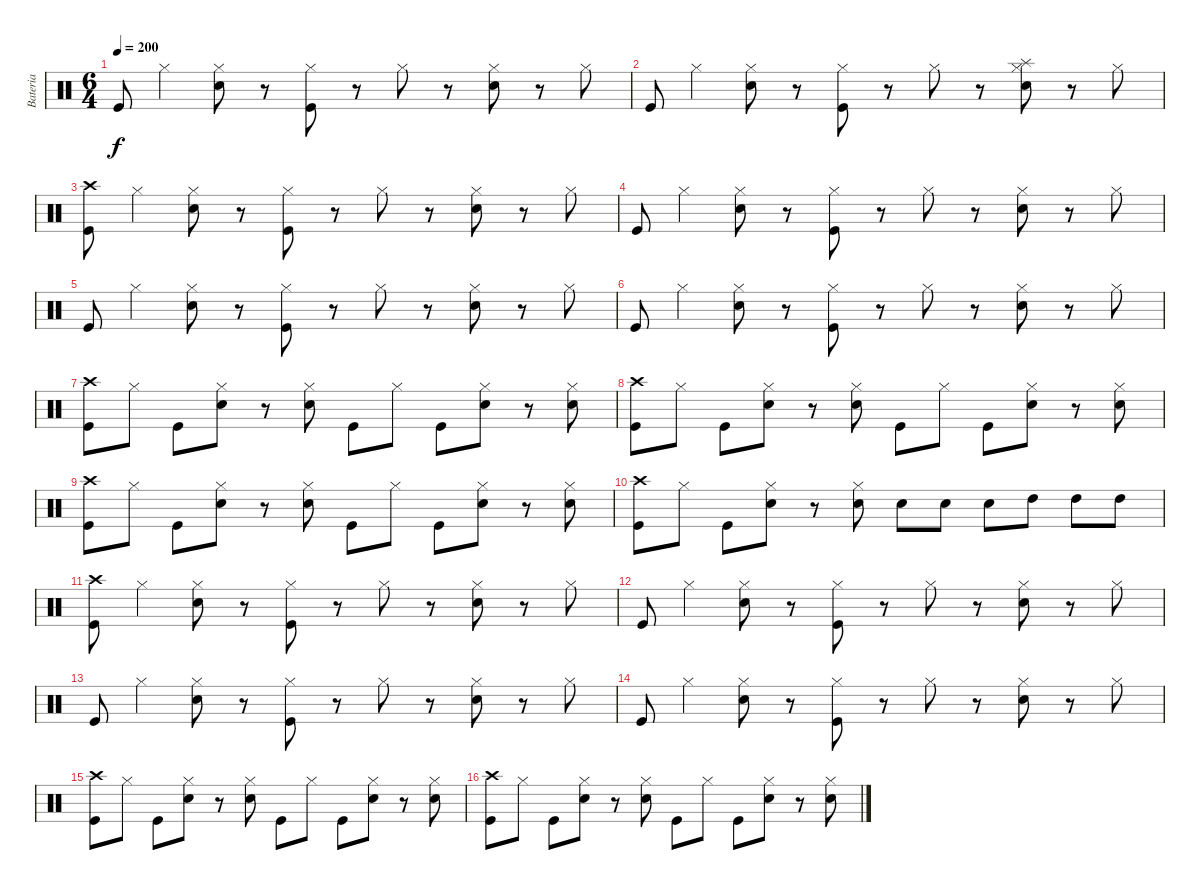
\track ("Bateria" "Bateria") {instrument percussion}
\staff {score}
\articulation defaults
\ts (6 4)
\tempo 200
\clef neutral
\ks c "Kick (hit)".8{dy f} "Hi-Hat (closed)".4
("Hi-Hat (closed)" "Electric Snare (hit)").8 r.8 ("Hi-Hat (closed)" "Kick (hit)").8 r.8 "Hi-Hat (closed)".8 r.8 ("Hi-Hat (closed)" "Electric Snare (hit)").8 r.8 "Hi-Hat (closed)".8 |
"Kick (hit)".8 "Hi-Hat (closed)".4 ("Hi-Hat (closed)" "Electric Snare (hit)").8 r.8 ("Hi-Hat (closed)" "Kick (hit)").8 r.8 "Hi-Hat (closed)".8 r.8 ("Splash (hit)" "Hi-Hat (closed)" "Electric Snare (hit)").8 r.8 "Hi-Hat (closed)".8 |
("Crash high (hit)" "Kick (hit)").8 "Hi-Hat (closed)".4 ("Hi-Hat (closed)" "Electric Snare (hit)").8 r.8 ("Hi-Hat (closed)" "Kick (hit)").8 r.8 "Hi-Hat (closed)".8 r.8 ("Hi-Hat (closed)" "Electric Snare (hit)").8 r.8 "Hi-Hat (closed)".8 |
"Kick (hit)".8 "Hi-Hat (closed)".4 ("Hi-Hat (closed)" "Electric Snare (hit)").8 r.8 ("Hi-Hat (closed)" "Kick (hit)").8 r.8 "Hi-Hat (closed)".8 r.8 ("Hi-Hat (closed)" "Electric Snare (hit)").8 r.8 "Hi-Hat (closed)".8 |
"Kick (hit)".8 "Hi-Hat (closed)".4 ("Hi-Hat (closed)" "Electric Snare (hit)").8 r.8 ("Hi-Hat (closed)" "Kick (hit)").8 r.8 "Hi-Hat (closed)".8 r.8 ("Hi-Hat (closed)" "Electric Snare (hit)").8 r.8 "Hi-Hat (closed)".8 |
"Kick (hit)".8 "Hi-Hat (closed)".4 ("Hi-Hat (closed)" "Electric Snare (hit)").8 r.8 ("Hi-Hat (closed)" "Kick (hit)").8 r.8 "Hi-Hat (closed)".8 r.8 ("Hi-Hat (closed)" "Electric Snare (hit)").8 r.8 "Hi-Hat (closed)".8 |
("Crash high (hit)" "Kick (hit)").8 "Hi-Hat (closed)".8 "Kick (hit)".8 ("Electric Snare (hit)" "Hi-Hat (closed)").8 r.8 ("Electric Snare (hit)" "Hi-Hat (closed)").8 "Kick (hit)".8 "Hi-Hat (closed)".8 "Kick (hit)".8 ("Electric Snare (hit)" "Hi-Hat (closed)").8 r.8 ("Electric Snare (hit)" "Hi-Hat (closed)").8 |
("Crash high (hit)" "Kick (hit)").8 "Hi-Hat (closed)".8 "Kick (hit)".8 ("Electric Snare (hit)" "Hi-Hat (closed)").8 r.8 ("Electric Snare (hit)" "Hi-Hat (closed)").8 "Kick (hit)".8 "Hi-Hat (closed)".8 "Kick (hit)".8 ("Electric Snare (hit)" "Hi-Hat (closed)").8 r.8 ("Electric Snare (hit)" "Hi-Hat (closed)").8 |
("Crash high (hit)" "Kick (hit)").8 "Hi-Hat (closed)".8 "Kick (hit)".8 ("Electric Snare (hit)" "Hi-Hat (closed)").8 r.8 ("Electric Snare (hit)" "Hi-Hat (closed)").8 "Kick (hit)".8 "Hi-Hat (closed)".8 "Kick (hit)".8 ("Electric Snare (hit)" "Hi-Hat (closed)").8 r.8 ("Electric Snare (hit)" "Hi-Hat (closed)").8 |
("Crash high (hit)" "Kick (hit)").8 "Hi-Hat (closed)".8 "Kick (hit)".8 ("Electric Snare (hit)" "Hi-Hat (closed)").8 r.8 ("Electric Snare (hit)" "Hi-Hat (closed)").8 "Electric Snare (hit)".8 "Electric Snare (hit)".8 "Electric Snare (hit)".8 "High Tom (hit)".8 "High Tom (hit)".8 "High Tom (hit)".8 |
("Crash high (hit)" "Kick (hit)").8 "Hi-Hat (closed)".4 ("Hi-Hat (closed)" "Electric Snare (hit)").8 r.8 ("Hi-Hat (closed)" "Kick (hit)").8 r.8 "Hi-Hat (closed)".8 r.8 ("Hi-Hat (closed)" "Electric Snare (hit)").8 r.8 "Hi-Hat (closed)".8 |
"Kick (hit)".8 "Hi-Hat (closed)".4 ("Hi-Hat (closed)" "Electric Snare (hit)").8 r.8 ("Hi-Hat (closed)" "Kick (hit)").8 r.8 "Hi-Hat (closed)".8 r.8 ("Hi-Hat (closed)" "Electric Snare (hit)").8 r.8 "Hi-Hat (closed)".8 |
"Kick (hit)".8 "Hi-Hat (closed)".4 ("Hi-Hat (closed)" "Electric Snare (hit)").8 r.8 ("Hi-Hat (closed)" "Kick (hit)").8 r.8 "Hi-Hat (closed)".8 r.8 ("Hi-Hat (closed)" "Electric Snare (hit)").8 r.8 "Hi-Hat (closed)".8 |
"Kick (hit)".8 "Hi-Hat (closed)".4 ("Hi-Hat (closed)" "Electric Snare (hit)").8 r.8 ("Hi-Hat (closed)" "Kick (hit)").8 r.8 "Hi-Hat (closed)".8 r.8 ("Hi-Hat (closed)" "Electric Snare (hit)").8 r.8 "Hi-Hat (closed)".8 |
("Crash high (hit)" "Kick (hit)").8 "Hi-Hat (closed)".8 "Kick (hit)".8 ("Electric Snare (hit)" "Hi-Hat (closed)").8 r.8 ("Electric Snare (hit)" "Hi-Hat (closed)").8 "Kick (hit)".8 "Hi-Hat (closed)".8 "Kick (hit)".8 ("Electric Snare (hit)" "Hi-Hat (closed)").8 r.8 ("Electric Snare (hit)" "Hi-Hat (closed)").8 |
("Crash high (hit)" "Kick (hit)").8 "Hi-Hat (closed)".8 "Kick (hit)".8 ("Electric Snare (hit)" "Hi-Hat (closed)").8 r.8 ("Electric Snare (hit)" "Hi-Hat (closed)").8 "Kick (hit)".8 "Hi-Hat (closed)".8 "Kick (hit)".8 ("Electric Snare (hit)" "Hi-Hat (closed)").8 r.8 ("Electric Snare (hit)" "Hi-Hat (closed)").8
